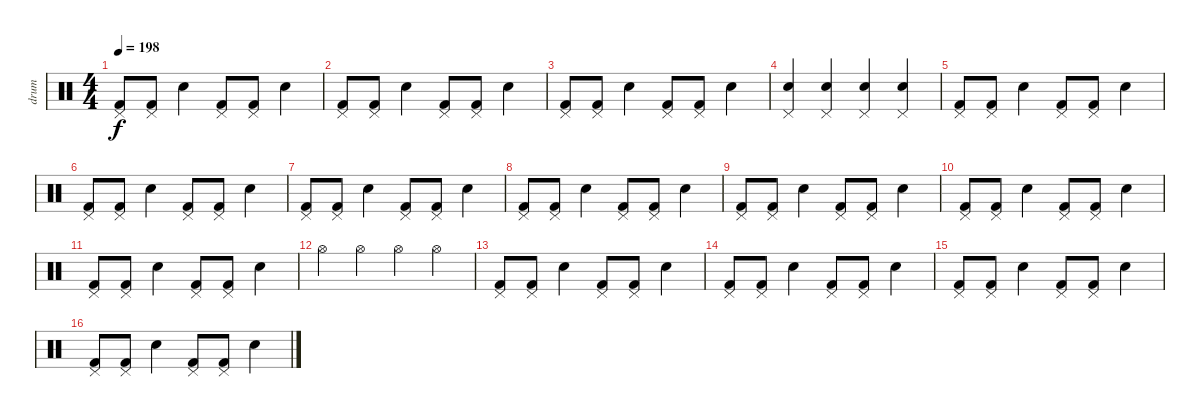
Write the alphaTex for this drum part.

\track ("drum" "drum") {instrument percussion}
\staff {score}
\articulation defaults
\ts (4 4)
\tempo 198
\clef neutral
\ks c
("Pedal Hi-Hat (hit)" "Kick (hit) 2").8{dy f} ("Pedal Hi-Hat (hit)" "Kick (hit) 2").8 "Electric Snare (hit)".4 ("Pedal Hi-Hat (hit)" "Kick (hit) 2").8 ("Pedal Hi-Hat (hit)" "Kick (hit) 2").8 "Electric Snare (hit)".4 |
("Pedal Hi-Hat (hit)" "Kick (hit) 2").8 ("Pedal Hi-Hat (hit)" "Kick (hit) 2").8 "Electric Snare (hit)".4 ("Pedal Hi-Hat (hit)" "Kick (hit) 2").8 ("Pedal Hi-Hat (hit)" "Kick (hit) 2").8 "Electric Snare (hit)".4 |
("Pedal Hi-Hat (hit)" "Kick (hit) 2").8 ("Pedal Hi-Hat (hit)" "Kick (hit) 2").8 "Electric Snare (hit)".4 ("Pedal Hi-Hat (hit)" "Kick (hit) 2").8 ("Pedal Hi-Hat (hit)" "Kick (hit) 2").8 "Electric Snare (hit)".4 |
("Pedal Hi-Hat (hit)" "Electric Snare (hit)").4 ("Pedal Hi-Hat (hit)" "Electric Snare (hit)").4 ("Pedal Hi-Hat (hit)" "Electric Snare (hit)").4 ("Pedal Hi-Hat (hit)" "Electric Snare (hit)").4 |
("Pedal Hi-Hat (hit)" "Kick (hit) 2").8 ("Pedal Hi-Hat (hit)" "Kick (hit) 2").8 "Electric Snare (hit)".4 ("Pedal Hi-Hat (hit)" "Kick (hit) 2").8 ("Pedal Hi-Hat (hit)" "Kick (hit) 2").8 "Electric Snare (hit)".4 |
("Pedal Hi-Hat (hit)" "Kick (hit) 2").8 ("Pedal Hi-Hat (hit)" "Kick (hit) 2").8 "Electric Snare (hit)".4 ("Pedal Hi-Hat (hit)" "Kick (hit) 2").8 ("Pedal Hi-Hat (hit)" "Kick (hit) 2").8 "Electric Snare (hit)".4 |
("Pedal Hi-Hat (hit)" "Kick (hit) 2").8 ("Pedal Hi-Hat (hit)" "Kick (hit) 2").8 "Electric Snare (hit)".4 ("Pedal Hi-Hat (hit)" "Kick (hit) 2").8 ("Pedal Hi-Hat (hit)" "Kick (hit) 2").8 "Electric Snare (hit)".4 |
("Pedal Hi-Hat (hit)" "Kick (hit) 2").8 ("Pedal Hi-Hat (hit)" "Kick (hit) 2").8 "Electric Snare (hit)".4 ("Pedal Hi-Hat (hit)" "Kick (hit) 2").8 ("Pedal Hi-Hat (hit)" "Kick (hit) 2").8 "Electric Snare (hit)".4 |
("Pedal Hi-Hat (hit)" "Kick (hit) 2").8 ("Pedal Hi-Hat (hit)" "Kick (hit) 2").8 "Electric Snare (hit)".4 ("Pedal Hi-Hat (hit)" "Kick (hit) 2").8 ("Pedal Hi-Hat (hit)" "Kick (hit) 2").8 "Electric Snare (hit)".4 |
("Pedal Hi-Hat (hit)" "Kick (hit) 2").8 ("Pedal Hi-Hat (hit)" "Kick (hit) 2").8 "Electric Snare (hit)".4 ("Pedal Hi-Hat (hit)" "Kick (hit) 2").8 ("Pedal Hi-Hat (hit)" "Kick (hit) 2").8 "Electric Snare (hit)".4 |
("Pedal Hi-Hat (hit)" "Kick (hit) 2").8 ("Pedal Hi-Hat (hit)" "Kick (hit) 2").8 "Electric Snare (hit)".4 ("Pedal Hi-Hat (hit)" "Kick (hit) 2").8 ("Pedal Hi-Hat (hit)" "Kick (hit) 2").8 "Electric Snare (hit)".4 |
"Hi-Hat (open)".4 "Hi-Hat (open)".4 "Hi-Hat (open)".4 "Hi-Hat (open)".4 |
("Pedal Hi-Hat (hit)" "Kick (hit) 2").8 ("Pedal Hi-Hat (hit)" "Kick (hit) 2").8 "Electric Snare (hit)".4 ("Pedal Hi-Hat (hit)" "Kick (hit) 2").8 ("Pedal Hi-Hat (hit)" "Kick (hit) 2").8 "Electric Snare (hit)".4 |
("Pedal Hi-Hat (hit)" "Kick (hit) 2").8 ("Pedal Hi-Hat (hit)" "Kick (hit) 2").8 "Electric Snare (hit)".4 ("Pedal Hi-Hat (hit)" "Kick (hit) 2").8 ("Pedal Hi-Hat (hit)" "Kick (hit) 2").8 "Electric Snare (hit)".4 |
("Pedal Hi-Hat (hit)" "Kick (hit) 2").8 ("Pedal Hi-Hat (hit)" "Kick (hit) 2").8 "Electric Snare (hit)".4 ("Pedal Hi-Hat (hit)" "Kick (hit) 2").8 ("Pedal Hi-Hat (hit)" "Kick (hit) 2").8 "Electric Snare (hit)".4 |
("Pedal Hi-Hat (hit)" "Kick (hit) 2").8 ("Pedal Hi-Hat (hit)" "Kick (hit) 2").8 "Electric Snare (hit)".4 ("Pedal Hi-Hat (hit)" "Kick (hit) 2").8 ("Pedal Hi-Hat (hit)" "Kick (hit) 2").8 "Electric Snare (hit)".4
